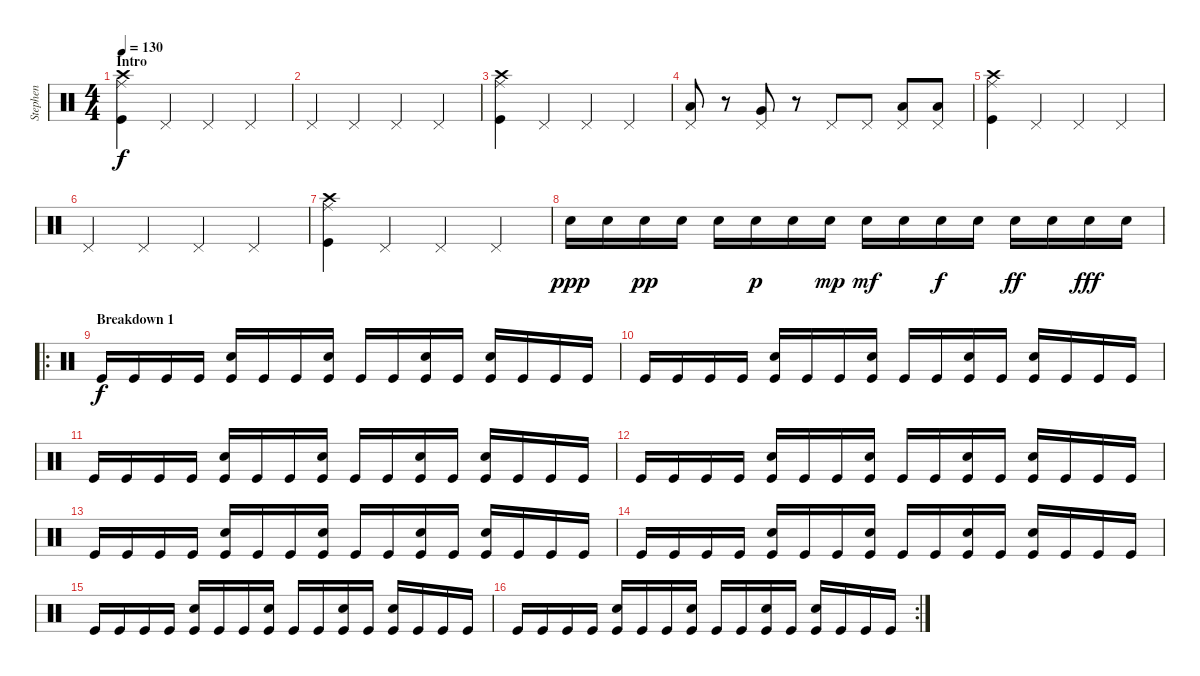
\track ("Stephen" "Stephen") {instrument percussion}
\staff {score}
\articulation defaults
\ts (4 4)
\section ("" "Intro")
\tempo 130
\clef neutral
\ks c
("Kick (hit)" "Crash high (hit)" "Ride (middle)").4{dy f} "Pedal Hi-Hat (hit)".4 "Pedal Hi-Hat (hit)".4 "Pedal Hi-Hat (hit)".4 |
"Pedal Hi-Hat (hit)".4 "Pedal Hi-Hat (hit)".4 "Pedal Hi-Hat (hit)".4 "Pedal Hi-Hat (hit)".4 |
("Kick (hit)" "Crash high (hit)" "Ride (middle)").4 "Pedal Hi-Hat (hit)".4 "Pedal Hi-Hat (hit)".4 "Pedal Hi-Hat (hit)".4 |
("Pedal Hi-Hat (hit)" "Low Floor Tom (hit)").8 r.8 ("Pedal Hi-Hat (hit)" "Very Low Tom (hit)").8 r.8 "Pedal Hi-Hat (hit)".8 "Pedal Hi-Hat (hit)".8 ("Pedal Hi-Hat (hit)" "Low Tom (hit)").8 ("Pedal Hi-Hat (hit)" "Low Tom (hit)").8 |
("Kick (hit)" "Crash high (hit)" "Ride (middle)").4 "Pedal Hi-Hat (hit)".4 "Pedal Hi-Hat (hit)".4 "Pedal Hi-Hat (hit)".4 |
"Pedal Hi-Hat (hit)".4 "Pedal Hi-Hat (hit)".4 "Pedal Hi-Hat (hit)".4 "Pedal Hi-Hat (hit)".4 |
("Kick (hit)" "Crash high (hit)" "Ride (middle)").4 "Pedal Hi-Hat (hit)".4 "Pedal Hi-Hat (hit)".4 "Pedal Hi-Hat (hit)".4 |
"Electric Snare (hit)".16{dy ppp} "Electric Snare (hit)".16 "Electric Snare (hit)".16{dy pp} "Electric Snare (hit)".16 "Electric Snare (hit)".16 "Electric Snare (hit)".16{dy p} "Electric Snare (hit)".16 "Electric Snare (hit)".16{dy mp} "Electric Snare (hit)".16{dy mf} "Electric Snare (hit)".16 "Electric Snare (hit)".16{dy f} "Electric Snare (hit)".16 "Electric Snare (hit)".16{dy ff} "Electric Snare (hit)".16 "Electric Snare (hit)".16{dy fff} "Electric Snare (hit)".16 |
\ro
\section ("" "Breakdown 1")
"Kick (hit)".16{dy f} "Kick (hit)".16 "Kick (hit)".16 "Kick (hit)".16 ("Electric Snare (hit)" "Kick (hit)").16 "Kick (hit)".16 "Kick (hit)".16 ("Electric Snare (hit)" "Kick (hit)").16 "Kick (hit)".16 "Kick (hit)".16 ("Electric Snare (hit)" "Kick (hit)").16 "Kick (hit)".16 ("Electric Snare (hit)" "Kick (hit)").16 "Kick (hit)".16 "Kick (hit)".16 "Kick (hit)".16 |
"Kick (hit)".16 "Kick (hit)".16 "Kick (hit)".16 "Kick (hit)".16 ("Electric Snare (hit)" "Kick (hit)").16 "Kick (hit)".16 "Kick (hit)".16 ("Electric Snare (hit)" "Kick (hit)").16 "Kick (hit)".16 "Kick (hit)".16 ("Electric Snare (hit)" "Kick (hit)").16 "Kick (hit)".16 ("Electric Snare (hit)" "Kick (hit)").16 "Kick (hit)".16 "Kick (hit)".16 "Kick (hit)".16 |
"Kick (hit)".16 "Kick (hit)".16 "Kick (hit)".16 "Kick (hit)".16 ("Electric Snare (hit)" "Kick (hit)").16 "Kick (hit)".16 "Kick (hit)".16 ("Electric Snare (hit)" "Kick (hit)").16 "Kick (hit)".16 "Kick (hit)".16 ("Electric Snare (hit)" "Kick (hit)").16 "Kick (hit)".16 ("Electric Snare (hit)" "Kick (hit)").16 "Kick (hit)".16 "Kick (hit)".16 "Kick (hit)".16 |
"Kick (hit)".16 "Kick (hit)".16 "Kick (hit)".16 "Kick (hit)".16 ("Electric Snare (hit)" "Kick (hit)").16 "Kick (hit)".16 "Kick (hit)".16 ("Electric Snare (hit)" "Kick (hit)").16 "Kick (hit)".16 "Kick (hit)".16 ("Electric Snare (hit)" "Kick (hit)").16 "Kick (hit)".16 ("Electric Snare (hit)" "Kick (hit)").16 "Kick (hit)".16 "Kick (hit)".16 "Kick (hit)".16 |
"Kick (hit)".16 "Kick (hit)".16 "Kick (hit)".16 "Kick (hit)".16 ("Electric Snare (hit)" "Kick (hit)").16 "Kick (hit)".16 "Kick (hit)".16 ("Electric Snare (hit)" "Kick (hit)").16 "Kick (hit)".16 "Kick (hit)".16 ("Electric Snare (hit)" "Kick (hit)").16 "Kick (hit)".16 ("Electric Snare (hit)" "Kick (hit)").16 "Kick (hit)".16 "Kick (hit)".16 "Kick (hit)".16 |
"Kick (hit)".16 "Kick (hit)".16 "Kick (hit)".16 "Kick (hit)".16 ("Electric Snare (hit)" "Kick (hit)").16 "Kick (hit)".16 "Kick (hit)".16 ("Electric Snare (hit)" "Kick (hit)").16 "Kick (hit)".16 "Kick (hit)".16 ("Electric Snare (hit)" "Kick (hit)").16 "Kick (hit)".16 ("Electric Snare (hit)" "Kick (hit)").16 "Kick (hit)".16 "Kick (hit)".16 "Kick (hit)".16 |
"Kick (hit)".16 "Kick (hit)".16 "Kick (hit)".16 "Kick (hit)".16 ("Electric Snare (hit)" "Kick (hit)").16 "Kick (hit)".16 "Kick (hit)".16 ("Electric Snare (hit)" "Kick (hit)").16 "Kick (hit)".16 "Kick (hit)".16 ("Electric Snare (hit)" "Kick (hit)").16 "Kick (hit)".16 ("Electric Snare (hit)" "Kick (hit)").16 "Kick (hit)".16 "Kick (hit)".16 "Kick (hit)".16 |
\rc 2 "Kick (hit)".16 "Kick (hit)".16 "Kick (hit)".16 "Kick (hit)".16
("Electric Snare (hit)" "Kick (hit)").16 "Kick (hit)".16 "Kick (hit)".16 ("Electric Snare (hit)" "Kick (hit)").16 "Kick (hit)".16 "Kick (hit)".16 ("Electric Snare (hit)" "Kick (hit)").16 "Kick (hit)".16 ("Electric Snare (hit)" "Kick (hit)").16 "Kick (hit)".16 "Kick (hit)".16 "Kick (hit)".16
